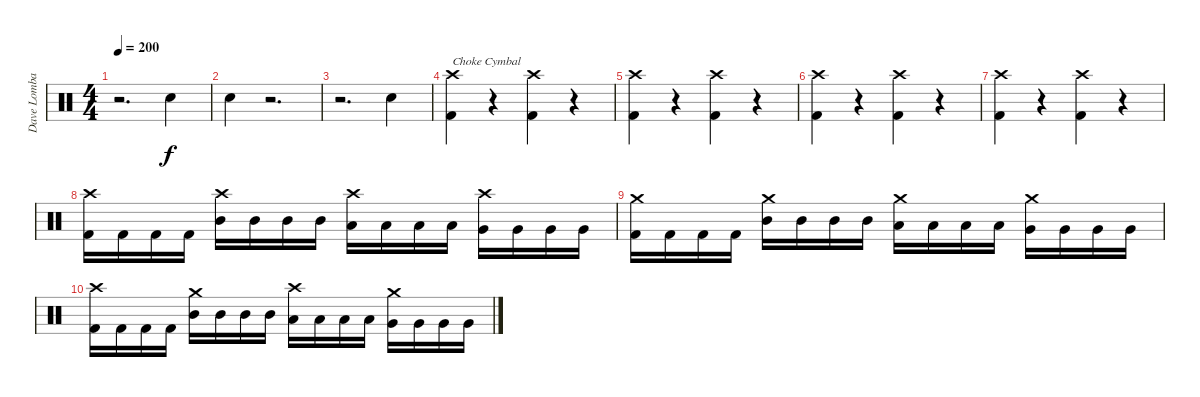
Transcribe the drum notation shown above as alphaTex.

\track ("Dave Lombardo (Drums)" "Dave Lomba") {instrument percussion}
\staff {score}
\articulation defaults
\ts (4 4)
\tempo 200
\clef neutral
\ks c
r.2{d dy f} "Snare (hit) 2".4 |
"Snare (hit) 2".4 r.2{d} |
r.2{d} "Snare (hit) 2".4 |
("Crash high (hit)" "Kick (hit) 2").4{txt "Choke Cymbal"} r.4{volume 0} ("Crash high (hit)" "Kick (hit) 2").4{volume 13} r.4{volume 0} |
("Crash high (hit)" "Kick (hit) 2").4{volume 13} r.4{volume 0} ("Crash high (hit)" "Kick (hit) 2").4{volume 13} r.4{volume 0} |
("Crash high (hit)" "Kick (hit) 2").4{volume 13} r.4{volume 0} ("Crash high (hit)" "Kick (hit) 2").4{volume 13} r.4{volume 0} |
("Crash high (hit)" "Kick (hit) 2").4{volume 13} r.4{volume 0} ("Crash high (hit)" "Kick (hit) 2").4{volume 13} r.4{volume 0} |
("Crash high (hit)" "Kick (hit) 2").16{volume 13} "Kick (hit) 2".16{volume 0} "Kick (hit) 2".16 "Kick (hit) 2".16 ("Crash high (hit)" "Mid Tom (hit)").16 "Mid Tom (hit)".16 "Mid Tom (hit)".16 "Mid Tom (hit)".16 ("Crash high (hit)" "Low Tom (hit)").16 "Low Tom (hit)".16 "Low Tom (hit)".16 "Low Tom (hit)".16 ("Crash high (hit)" "Very Low Tom (hit)").16 "Very Low Tom (hit)".16 "Very Low Tom (hit)".16 "Very Low Tom (hit)".16 |
("Crash medium (hit)" "Kick (hit) 2").16 "Kick (hit) 2".16 "Kick (hit) 2".16 "Kick (hit) 2".16 ("Crash medium (hit)" "Mid Tom (hit)").16 "Mid Tom (hit)".16 "Mid Tom (hit)".16 "Mid Tom (hit)".16 ("Crash medium (hit)" "Low Tom (hit)").16 "Low Tom (hit)".16 "Low Tom (hit)".16 "Low Tom (hit)".16 ("Crash medium (hit)" "Very Low Tom (hit)").16 "Very Low Tom (hit)".16 "Very Low Tom (hit)".16 "Very Low Tom (hit)".16 |
("Crash high (hit)" "Kick (hit) 2").16 "Kick (hit) 2".16 "Kick (hit) 2".16 "Kick (hit) 2".16 ("Crash medium (hit)" "Mid Tom (hit)").16 "Mid Tom (hit)".16 "Mid Tom (hit)".16 "Mid Tom (hit)".16 ("Crash high (hit)" "Low Tom (hit)").16 "Low Tom (hit)".16 "Low Tom (hit)".16 "Low Tom (hit)".16 ("Crash medium (hit)" "Very Low Tom (hit)").16 "Very Low Tom (hit)".16 "Very Low Tom (hit)".16 "Very Low Tom (hit)".16
